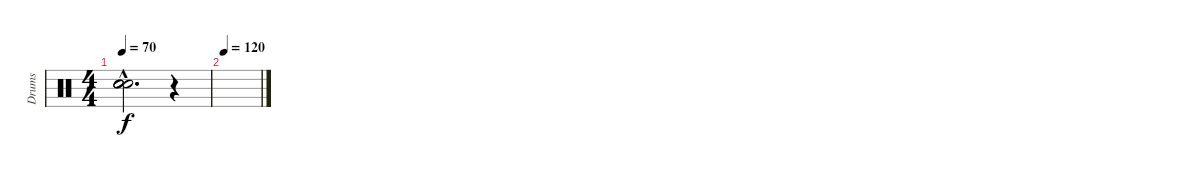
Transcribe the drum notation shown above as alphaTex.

\track ("Drums" "Drums") {instrument percussion}
\staff {score}
\articulation defaults
\ts (4 4)
\tempo 70
\clef neutral
\ks c
("Snare (hit)"{hac t} "Snare (hit)"{hac t} "Snare (hit)"{hac t} "Snare (hit)"{hac t}).2{d dy f} r.4 |
\tempo 120
